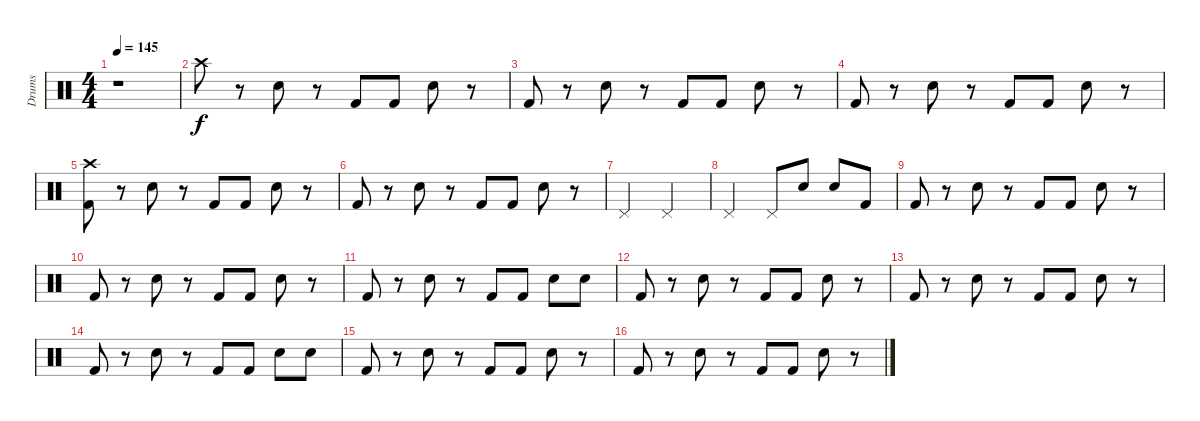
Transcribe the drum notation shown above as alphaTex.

\track ("Drums" "Drums") {instrument percussion}
\staff {score}
\articulation defaults
\ts (4 4)
\tempo 145
\clef neutral
\ks c
r.1{dy f} |
"Crash high (hit)".8 r.8 "Electric Snare (hit)".8 r.8 "Kick (hit) 2".8 "Kick (hit) 2".8 "Electric Snare (hit)".8 r.8 |
"Kick (hit) 2".8 r.8 "Electric Snare (hit)".8 r.8 "Kick (hit) 2".8 "Kick (hit) 2".8 "Electric Snare (hit)".8 r.8 |
"Kick (hit) 2".8 r.8 "Electric Snare (hit)".8 r.8 "Kick (hit) 2".8 "Kick (hit) 2".8 "Electric Snare (hit)".8 r.8 |
("Crash high (hit)" "Kick (hit) 2").8 r.8 "Electric Snare (hit)".8 r.8 "Kick (hit) 2".8 "Kick (hit) 2".8 "Electric Snare (hit)".8 r.8 |
"Kick (hit) 2".8 r.8 "Electric Snare (hit)".8 r.8 "Kick (hit) 2".8 "Kick (hit) 2".8 "Electric Snare (hit)".8 r.8 |
"Pedal Hi-Hat (hit)".2 "Pedal Hi-Hat (hit)".2 |
"Pedal Hi-Hat (hit)".2 "Pedal Hi-Hat (hit)".8 "Electric Snare (hit)".8 "Electric Snare (hit)".8 "Kick (hit) 2".8 |
"Kick (hit) 2".8 r.8 "Electric Snare (hit)".8 r.8 "Kick (hit) 2".8 "Kick (hit) 2".8 "Electric Snare (hit)".8 r.8 |
"Kick (hit) 2".8 r.8 "Electric Snare (hit)".8 r.8 "Kick (hit) 2".8 "Kick (hit) 2".8 "Electric Snare (hit)".8 r.8 |
"Kick (hit) 2".8 r.8 "Electric Snare (hit)".8 r.8 "Kick (hit) 2".8 "Kick (hit) 2".8 "Electric Snare (hit)".8 "Electric Snare (hit)".8 |
"Kick (hit) 2".8 r.8 "Electric Snare (hit)".8 r.8 "Kick (hit) 2".8 "Kick (hit) 2".8 "Electric Snare (hit)".8 r.8 |
"Kick (hit) 2".8 r.8 "Electric Snare (hit)".8 r.8 "Kick (hit) 2".8 "Kick (hit) 2".8 "Electric Snare (hit)".8 r.8 |
"Kick (hit) 2".8 r.8 "Electric Snare (hit)".8 r.8 "Kick (hit) 2".8 "Kick (hit) 2".8 "Electric Snare (hit)".8 "Electric Snare (hit)".8 |
"Kick (hit) 2".8 r.8 "Electric Snare (hit)".8 r.8 "Kick (hit) 2".8 "Kick (hit) 2".8 "Electric Snare (hit)".8 r.8 |
"Kick (hit) 2".8 r.8 "Electric Snare (hit)".8 r.8 "Kick (hit) 2".8 "Kick (hit) 2".8 "Electric Snare (hit)".8 r.8
